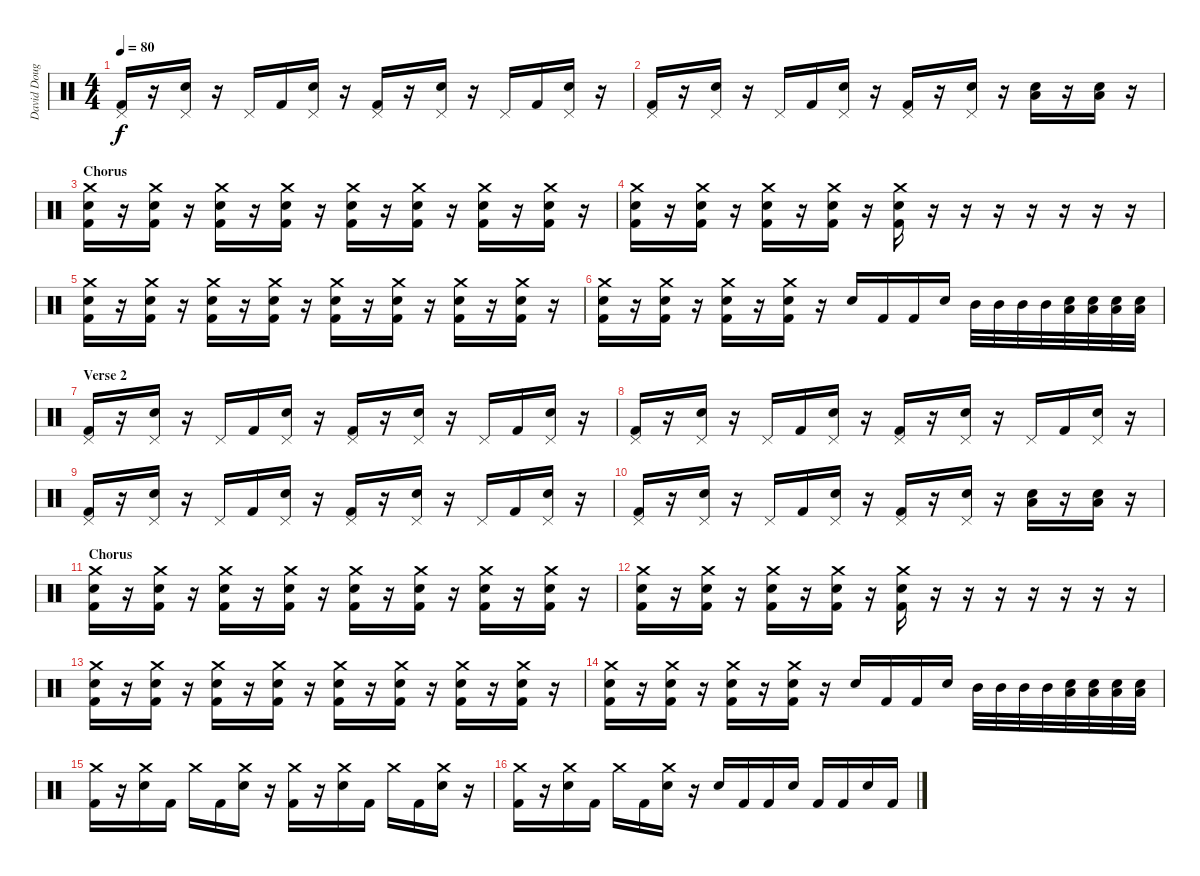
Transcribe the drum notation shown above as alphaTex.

\track ("David Douglas" "David Doug") {instrument percussion}
\staff {score}
\articulation defaults
\ts (4 4)
\tempo 80
\clef neutral
\ks c
("Pedal Hi-Hat (hit)" "Kick (hit) 2").16{dy f} r.16 ("Pedal Hi-Hat (hit)" "Electric Snare (hit)").16 r.16 "Pedal Hi-Hat (hit)".16 "Kick (hit) 2".16 ("Pedal Hi-Hat (hit)" "Electric Snare (hit)").16 r.16 ("Pedal Hi-Hat (hit)" "Kick (hit) 2").16 r.16 ("Pedal Hi-Hat (hit)" "Electric Snare (hit)").16 r.16 "Pedal Hi-Hat (hit)".16 "Kick (hit) 2".16 ("Pedal Hi-Hat (hit)" "Electric Snare (hit)").16 r.16 |
("Pedal Hi-Hat (hit)" "Kick (hit) 2").16 r.16 ("Pedal Hi-Hat (hit)" "Electric Snare (hit)").16 r.16 "Pedal Hi-Hat (hit)".16 "Kick (hit) 2".16 ("Pedal Hi-Hat (hit)" "Electric Snare (hit)").16 r.16 ("Pedal Hi-Hat (hit)" "Kick (hit) 2").16 r.16 ("Pedal Hi-Hat (hit)" "Electric Snare (hit)").16 r.16 ("Low Tom (hit)" "Electric Snare (hit)").16 r.16 ("Low Tom (hit)" "Electric Snare (hit)").16 r.16 |
\section ("" "Chorus")
("Crash medium (hit)" "Electric Snare (hit)" "Kick (hit) 2").16 r.16 ("Crash medium (hit)" "Electric Snare (hit)" "Kick (hit) 2").16 r.16 ("Crash medium (hit)" "Electric Snare (hit)" "Kick (hit) 2").16 r.16 ("Crash medium (hit)" "Electric Snare (hit)" "Kick (hit) 2").16 r.16 ("Crash medium (hit)" "Electric Snare (hit)" "Kick (hit) 2").16 r.16 ("Crash medium (hit)" "Electric Snare (hit)" "Kick (hit) 2").16 r.16 ("Crash medium (hit)" "Electric Snare (hit)" "Kick (hit) 2").16 r.16 ("Crash medium (hit)" "Electric Snare (hit)" "Kick (hit) 2").16 r.16 |
("Crash medium (hit)" "Electric Snare (hit)" "Kick (hit) 2").16 r.16 ("Crash medium (hit)" "Electric Snare (hit)" "Kick (hit) 2").16 r.16 ("Crash medium (hit)" "Electric Snare (hit)" "Kick (hit) 2").16 r.16 ("Crash medium (hit)" "Electric Snare (hit)" "Kick (hit) 2").16 r.16 ("Crash medium (hit)" "Electric Snare (hit)" "Kick (hit) 2").16 r.16 r.16 r.16 r.16 r.16 r.16 r.16 |
("Crash medium (hit)" "Electric Snare (hit)" "Kick (hit) 2").16 r.16 ("Crash medium (hit)" "Electric Snare (hit)" "Kick (hit) 2").16 r.16 ("Crash medium (hit)" "Electric Snare (hit)" "Kick (hit) 2").16 r.16 ("Crash medium (hit)" "Electric Snare (hit)" "Kick (hit) 2").16 r.16 ("Crash medium (hit)" "Electric Snare (hit)" "Kick (hit) 2").16 r.16 ("Crash medium (hit)" "Electric Snare (hit)" "Kick (hit) 2").16 r.16 ("Crash medium (hit)" "Electric Snare (hit)" "Kick (hit) 2").16 r.16 ("Crash medium (hit)" "Electric Snare (hit)" "Kick (hit) 2").16 r.16 |
("Crash medium (hit)" "Electric Snare (hit)" "Kick (hit) 2").16 r.16 ("Crash medium (hit)" "Electric Snare (hit)" "Kick (hit) 2").16 r.16 ("Crash medium (hit)" "Electric Snare (hit)" "Kick (hit) 2").16 r.16 ("Crash medium (hit)" "Electric Snare (hit)" "Kick (hit) 2").16 r.16 "Electric Snare (hit)".16 "Kick (hit) 2".16 "Kick (hit) 2".16 "Electric Snare (hit)".16 "Mid Tom (hit)".32 "Mid Tom (hit)".32 "Mid Tom (hit)".32 "Mid Tom (hit)".32 ("Low Tom (hit)" "Electric Snare (hit)").32 ("Low Tom (hit)" "Electric Snare (hit)").32 ("Low Tom (hit)" "Electric Snare (hit)").32 ("Low Tom (hit)" "Electric Snare (hit)").32 |
\section ("" "Verse 2")
("Pedal Hi-Hat (hit)" "Kick (hit) 2").16 r.16 ("Pedal Hi-Hat (hit)" "Electric Snare (hit)").16 r.16 "Pedal Hi-Hat (hit)".16 "Kick (hit) 2".16 ("Pedal Hi-Hat (hit)" "Electric Snare (hit)").16 r.16 ("Pedal Hi-Hat (hit)" "Kick (hit) 2").16 r.16 ("Pedal Hi-Hat (hit)" "Electric Snare (hit)").16 r.16 "Pedal Hi-Hat (hit)".16 "Kick (hit) 2".16 ("Pedal Hi-Hat (hit)" "Electric Snare (hit)").16 r.16 |
("Pedal Hi-Hat (hit)" "Kick (hit) 2").16 r.16 ("Pedal Hi-Hat (hit)" "Electric Snare (hit)").16 r.16 "Pedal Hi-Hat (hit)".16 "Kick (hit) 2".16 ("Pedal Hi-Hat (hit)" "Electric Snare (hit)").16 r.16 ("Pedal Hi-Hat (hit)" "Kick (hit) 2").16 r.16 ("Pedal Hi-Hat (hit)" "Electric Snare (hit)").16 r.16 "Pedal Hi-Hat (hit)".16 "Kick (hit) 2".16 ("Pedal Hi-Hat (hit)" "Electric Snare (hit)").16 r.16 |
("Pedal Hi-Hat (hit)" "Kick (hit) 2").16 r.16 ("Pedal Hi-Hat (hit)" "Electric Snare (hit)").16 r.16 "Pedal Hi-Hat (hit)".16 "Kick (hit) 2".16 ("Pedal Hi-Hat (hit)" "Electric Snare (hit)").16 r.16 ("Pedal Hi-Hat (hit)" "Kick (hit) 2").16 r.16 ("Pedal Hi-Hat (hit)" "Electric Snare (hit)").16 r.16 "Pedal Hi-Hat (hit)".16 "Kick (hit) 2".16 ("Pedal Hi-Hat (hit)" "Electric Snare (hit)").16 r.16 |
("Pedal Hi-Hat (hit)" "Kick (hit) 2").16 r.16 ("Pedal Hi-Hat (hit)" "Electric Snare (hit)").16 r.16 "Pedal Hi-Hat (hit)".16 "Kick (hit) 2".16 ("Pedal Hi-Hat (hit)" "Electric Snare (hit)").16 r.16 ("Pedal Hi-Hat (hit)" "Kick (hit) 2").16 r.16 ("Pedal Hi-Hat (hit)" "Electric Snare (hit)").16 r.16 ("Low Tom (hit)" "Electric Snare (hit)").16 r.16 ("Low Tom (hit)" "Electric Snare (hit)").16 r.16 |
\section ("" "Chorus")
("Crash medium (hit)" "Electric Snare (hit)" "Kick (hit) 2").16 r.16 ("Crash medium (hit)" "Electric Snare (hit)" "Kick (hit) 2").16 r.16 ("Crash medium (hit)" "Electric Snare (hit)" "Kick (hit) 2").16 r.16 ("Crash medium (hit)" "Electric Snare (hit)" "Kick (hit) 2").16 r.16 ("Crash medium (hit)" "Electric Snare (hit)" "Kick (hit) 2").16 r.16 ("Crash medium (hit)" "Electric Snare (hit)" "Kick (hit) 2").16 r.16 ("Crash medium (hit)" "Electric Snare (hit)" "Kick (hit) 2").16 r.16 ("Crash medium (hit)" "Electric Snare (hit)" "Kick (hit) 2").16 r.16 |
("Crash medium (hit)" "Electric Snare (hit)" "Kick (hit) 2").16 r.16 ("Crash medium (hit)" "Electric Snare (hit)" "Kick (hit) 2").16 r.16 ("Crash medium (hit)" "Electric Snare (hit)" "Kick (hit) 2").16 r.16 ("Crash medium (hit)" "Electric Snare (hit)" "Kick (hit) 2").16 r.16 ("Crash medium (hit)" "Electric Snare (hit)" "Kick (hit) 2").16 r.16 r.16 r.16 r.16 r.16 r.16 r.16 |
("Crash medium (hit)" "Electric Snare (hit)" "Kick (hit) 2").16 r.16 ("Crash medium (hit)" "Electric Snare (hit)" "Kick (hit) 2").16 r.16 ("Crash medium (hit)" "Electric Snare (hit)" "Kick (hit) 2").16 r.16 ("Crash medium (hit)" "Electric Snare (hit)" "Kick (hit) 2").16 r.16 ("Crash medium (hit)" "Electric Snare (hit)" "Kick (hit) 2").16 r.16 ("Crash medium (hit)" "Electric Snare (hit)" "Kick (hit) 2").16 r.16 ("Crash medium (hit)" "Electric Snare (hit)" "Kick (hit) 2").16 r.16 ("Crash medium (hit)" "Electric Snare (hit)" "Kick (hit) 2").16 r.16 |
("Crash medium (hit)" "Electric Snare (hit)" "Kick (hit) 2").16 r.16 ("Crash medium (hit)" "Electric Snare (hit)" "Kick (hit) 2").16 r.16 ("Crash medium (hit)" "Electric Snare (hit)" "Kick (hit) 2").16 r.16 ("Crash medium (hit)" "Electric Snare (hit)" "Kick (hit) 2").16 r.16 "Electric Snare (hit)".16 "Kick (hit) 2".16 "Kick (hit) 2".16 "Electric Snare (hit)".16 "Mid Tom (hit)".32 "Mid Tom (hit)".32 "Mid Tom (hit)".32 "Mid Tom (hit)".32 ("Low Tom (hit)" "Electric Snare (hit)").32 ("Low Tom (hit)" "Electric Snare (hit)").32 ("Low Tom (hit)" "Electric Snare (hit)").32 ("Low Tom (hit)" "Electric Snare (hit)").32 |
\section ("" "")
("Crash medium (hit)" "Kick (hit) 2").16 r.16 ("Crash medium (hit)" "Electric Snare (hit)").16 "Kick (hit) 2".16 "Crash medium (hit)".16 "Kick (hit) 2".16 ("Crash medium (hit)" "Electric Snare (hit)").16 r.16 ("Crash medium (hit)" "Kick (hit) 2").16 r.16 ("Crash medium (hit)" "Electric Snare (hit)").16 "Kick (hit) 2".16 "Crash medium (hit)".16 "Kick (hit) 2".16 ("Crash medium (hit)" "Electric Snare (hit)").16 r.16 |
("Crash medium (hit)" "Kick (hit) 2").16 r.16 ("Crash medium (hit)" "Electric Snare (hit)").16 "Kick (hit) 2".16 "Crash medium (hit)".16 "Kick (hit) 2".16 ("Crash medium (hit)" "Electric Snare (hit)").16 r.16 "Electric Snare (hit)".16 "Kick (hit) 2".16 "Kick (hit) 2".16 "Electric Snare (hit)".16 "Kick (hit) 2".16 "Kick (hit) 2".16 "Electric Snare (hit)".16 "Kick (hit) 2".16
